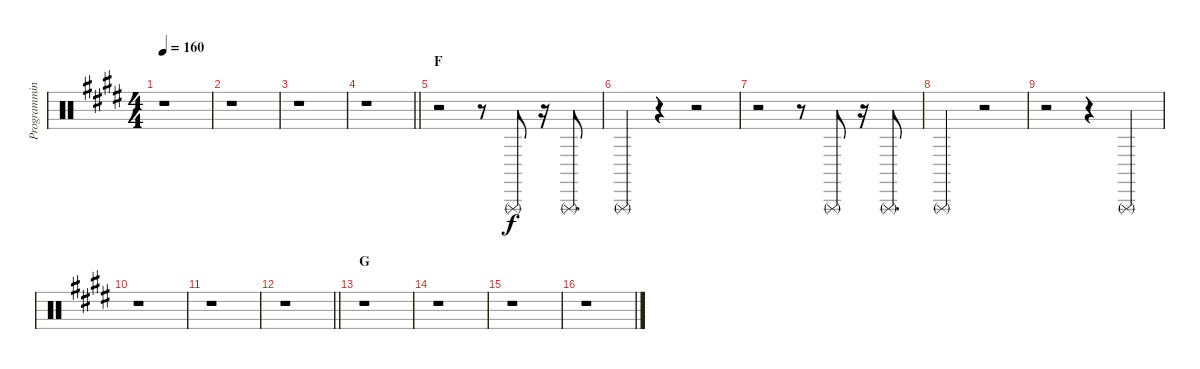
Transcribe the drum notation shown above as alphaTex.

\track ("Programming" "Programmin") {instrument percussion}
\staff {score}
\articulation defaults
\ts (4 4)
\tempo 160
\clef neutral
\ks e
r.1{dy f} |
r.1 |
r.1 |
\barLineRight lightlight
r.1 |
\section ("" "F")
r.2 r.8 "Triangle (rnute)".8 r.16 "Triangle (rnute)".8{d} |
"Triangle (rnute)".4 r.4 r.2 |
r.2 r.8 "Triangle (rnute)".8 r.16 "Triangle (rnute)".8{d} |
"Triangle (rnute)".2 r.2 |
r.2 r.4 "Triangle (rnute)".4 |
r.1 |
r.1 |
\barLineRight lightlight
r.1 |
\section ("" "G")
r.1 |
r.1 |
r.1 |
r.1
